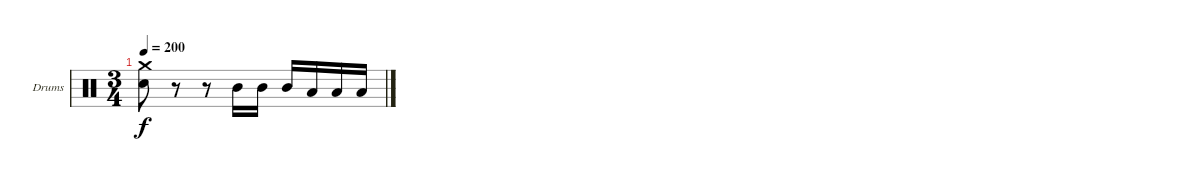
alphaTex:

\bracketExtendMode groupsimilarinstruments
\firstSystemTrackNameOrientation horizontal
\otherSystemsTrackNameOrientation horizontal
\track ("Drumkit" "Drums") {instrument percussion}
\staff {score}
\articulation defaults
\ts (3 4)
\tempo 200
\clef neutral
\ks c
("Snare (hit) 2" "Crash medium (hit)").8{dy f} r.8 r.8 "Mid Tom (hit)".16 "Mid Tom (hit)".16 "Mid Tom (hit)".16 "Low Tom (hit)".16 "Low Tom (hit)".16 "Low Tom (hit)".16
